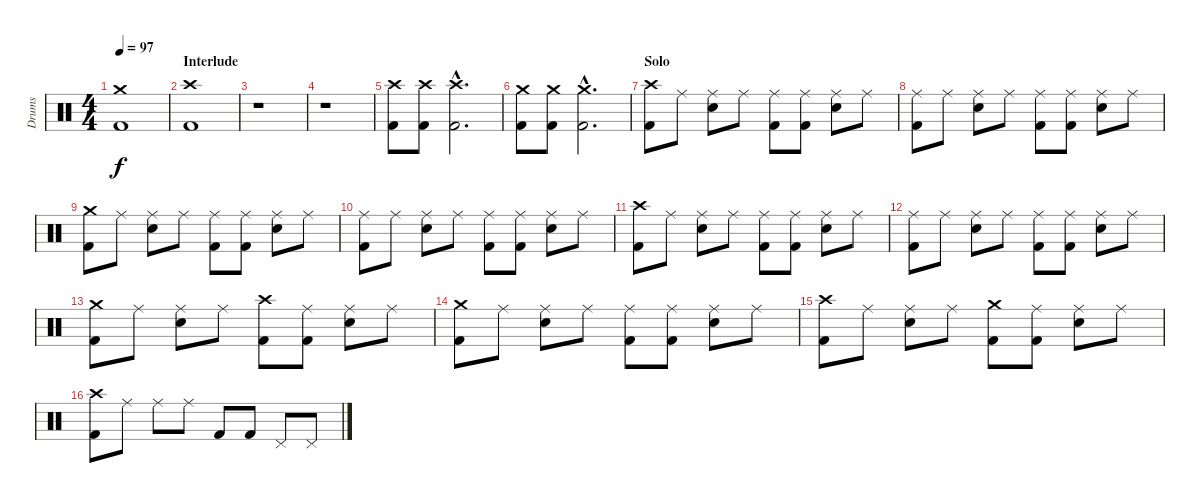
\track ("Drums" "Drums") {instrument percussion}
\staff {score}
\articulation defaults
\ts (4 4)
\tempo 97
\clef neutral
\ks c
("Crash medium (hit)" "Kick (hit) 2").1{dy f} |
\section ("" "Interlude")
("Crash high (hit)" "Kick (hit) 2").1 |
r.1 |
r.1 |
("Crash high (hit)" "Kick (hit) 2").8 ("Crash high (hit)" "Kick (hit) 2").8 ("Crash high (hit)"{hac} "Kick (hit) 2"{hac}).2{d} |
("Crash medium (hit)" "Kick (hit) 2").8 ("Crash medium (hit)" "Kick (hit) 2").8 ("Crash medium (hit)"{hac} "Kick (hit) 2"{hac}).2{d} |
\section ("" "Solo")
("Crash high (hit)" "Kick (hit) 2").8 "Ride (middle)".8 ("Ride (middle)" "Snare (hit) 2").8 "Ride (middle)".8 ("Ride (middle)" "Kick (hit) 2").8 ("Ride (middle)" "Kick (hit) 2").8 ("Ride (middle)" "Snare (hit) 2").8 "Ride (middle)".8 |
("Ride (middle)" "Kick (hit) 2").8 "Ride (middle)".8 ("Ride (middle)" "Snare (hit) 2").8 "Ride (middle)".8 ("Ride (middle)" "Kick (hit) 2").8 ("Ride (middle)" "Kick (hit) 2").8 ("Ride (middle)" "Snare (hit) 2").8 "Ride (middle)".8 |
("Crash medium (hit)" "Kick (hit) 2").8 "Ride (middle)".8 ("Ride (middle)" "Snare (hit) 2").8 "Ride (middle)".8 ("Ride (middle)" "Kick (hit) 2").8 ("Ride (middle)" "Kick (hit) 2").8 ("Ride (middle)" "Snare (hit) 2").8 "Ride (middle)".8 |
("Ride (middle)" "Kick (hit) 2").8 "Ride (middle)".8 ("Ride (middle)" "Snare (hit) 2").8 "Ride (middle)".8 ("Ride (middle)" "Kick (hit) 2").8 ("Ride (middle)" "Kick (hit) 2").8 ("Ride (middle)" "Snare (hit) 2").8 "Ride (middle)".8 |
("Crash high (hit)" "Kick (hit) 2").8 "Ride (middle)".8 ("Ride (middle)" "Snare (hit) 2").8 "Ride (middle)".8 ("Ride (middle)" "Kick (hit) 2").8 ("Ride (middle)" "Kick (hit) 2").8 ("Ride (middle)" "Snare (hit) 2").8 "Ride (middle)".8 |
("Ride (middle)" "Kick (hit) 2").8 "Ride (middle)".8 ("Ride (middle)" "Snare (hit) 2").8 "Ride (middle)".8 ("Ride (middle)" "Kick (hit) 2").8 ("Ride (middle)" "Kick (hit) 2").8 ("Ride (middle)" "Snare (hit) 2").8 "Ride (middle)".8 |
("Crash medium (hit)" "Kick (hit) 2").8 "Ride (middle)".8 ("Ride (middle)" "Snare (hit) 2").8 "Ride (middle)".8 ("Crash high (hit)" "Kick (hit) 2").8 ("Ride (middle)" "Kick (hit) 2").8 ("Ride (middle)" "Snare (hit) 2").8 "Ride (middle)".8 |
("Crash medium (hit)" "Kick (hit) 2").8 "Ride (middle)".8 ("Ride (middle)" "Snare (hit) 2").8 "Ride (middle)".8 ("Ride (middle)" "Kick (hit) 2").8 ("Ride (middle)" "Kick (hit) 2").8 ("Ride (middle)" "Snare (hit) 2").8 "Ride (middle)".8 |
("Crash high (hit)" "Kick (hit) 2").8 "Ride (middle)".8 ("Ride (middle)" "Snare (hit) 2").8 "Ride (middle)".8 ("Crash medium (hit)" "Kick (hit) 2").8 ("Ride (middle)" "Kick (hit) 2").8 ("Ride (middle)" "Snare (hit) 2").8 "Ride (middle)".8 |
("Crash high (hit)" "Kick (hit) 2").8 "Ride (middle)".8 "Ride (middle)".8 "Ride (middle)".8 "Kick (hit) 2".8 "Kick (hit) 2".8 "Pedal Hi-Hat (hit)".8 "Pedal Hi-Hat (hit)".8
